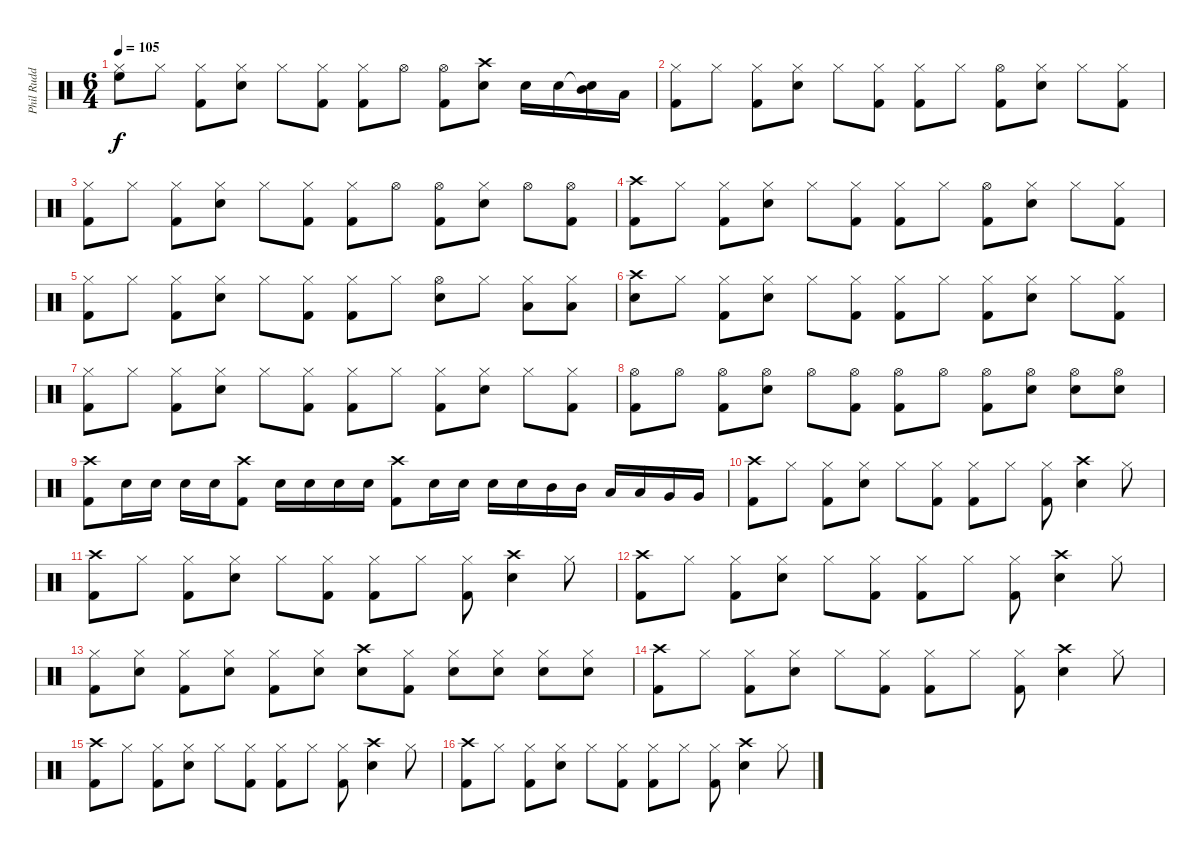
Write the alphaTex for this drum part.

\track ("Phil Rudd" "Phil Rudd") {instrument percussion}
\staff {score}
\articulation defaults
\ts (6 4)
\tempo 105
\clef neutral
\ks c
("Hi-Hat (closed)" "High Floor Tom (hit)").8{dy f} "Hi-Hat (closed)".8 ("Hi-Hat (closed)" "Kick (hit) 2").8 ("Hi-Hat (closed)" "Electric Snare (hit)").8 "Hi-Hat (closed)".8 ("Hi-Hat (closed)" "Kick (hit) 2").8 ("Hi-Hat (closed)" "Kick (hit) 2").8 "Hi-Hat (open)".8 ("Hi-Hat (open)" "Kick (hit) 2").8 ("Crash high (hit)" "Electric Snare (hit)").8 "Electric Snare (hit)".16 "Electric Snare (hit)".16 ("Snare (hit)"{t} "Mid Tom (hit)").16 "Low Tom (hit)".16 |
("Hi-Hat (closed)" "Kick (hit) 2").8 "Hi-Hat (closed)".8 ("Hi-Hat (closed)" "Kick (hit) 2").8 ("Hi-Hat (closed)" "Electric Snare (hit)").8 "Hi-Hat (closed)".8 ("Hi-Hat (closed)" "Kick (hit) 2").8 ("Hi-Hat (closed)" "Kick (hit) 2").8 "Hi-Hat (closed)".8 ("Hi-Hat (open)" "Kick (hit) 2").8 ("Hi-Hat (closed)" "Electric Snare (hit)").8 "Hi-Hat (closed)".8 ("Hi-Hat (closed)" "Kick (hit) 2").8 |
("Hi-Hat (closed)" "Kick (hit) 2").8 "Hi-Hat (closed)".8 ("Hi-Hat (closed)" "Kick (hit) 2").8 ("Hi-Hat (closed)" "Electric Snare (hit)").8 "Hi-Hat (closed)".8 ("Hi-Hat (closed)" "Kick (hit) 2").8 ("Hi-Hat (closed)" "Kick (hit) 2").8 "Hi-Hat (open)".8 ("Hi-Hat (open)" "Kick (hit) 2").8 ("Hi-Hat (closed)" "Electric Snare (hit)").8 "Hi-Hat (open)".8 ("Hi-Hat (open)" "Kick (hit) 2").8 |
("Crash high (hit)" "Kick (hit) 2").8 "Hi-Hat (closed)".8 ("Hi-Hat (closed)" "Kick (hit) 2").8 ("Hi-Hat (closed)" "Electric Snare (hit)").8 "Hi-Hat (closed)".8 ("Hi-Hat (closed)" "Kick (hit) 2").8 ("Hi-Hat (closed)" "Kick (hit) 2").8 "Hi-Hat (closed)".8 ("Hi-Hat (open)" "Kick (hit) 2").8 ("Hi-Hat (closed)" "Electric Snare (hit)").8 "Hi-Hat (closed)".8 ("Hi-Hat (closed)" "Kick (hit) 2").8 |
("Hi-Hat (closed)" "Kick (hit) 2").8 "Hi-Hat (closed)".8 ("Hi-Hat (closed)" "Kick (hit) 2").8 ("Hi-Hat (closed)" "Electric Snare (hit)").8 "Hi-Hat (closed)".8 ("Hi-Hat (closed)" "Kick (hit) 2").8 ("Hi-Hat (closed)" "Kick (hit) 2").8 "Hi-Hat (closed)".8 ("Hi-Hat (open)" "Electric Snare (hit)").8 "Hi-Hat (closed)".8 ("Hi-Hat (closed)" "Low Tom (hit)").8 ("Hi-Hat (closed)" "Low Tom (hit)").8 |
("Crash high (hit)" "Electric Snare (hit)").8 "Hi-Hat (closed)".8 ("Hi-Hat (closed)" "Kick (hit) 2").8 ("Hi-Hat (closed)" "Electric Snare (hit)").8 "Hi-Hat (closed)".8 ("Hi-Hat (closed)" "Kick (hit) 2").8 ("Hi-Hat (closed)" "Kick (hit) 2").8 "Hi-Hat (closed)".8 ("Hi-Hat (closed)" "Kick (hit) 2").8 ("Hi-Hat (closed)" "Electric Snare (hit)").8 "Hi-Hat (closed)".8 ("Hi-Hat (closed)" "Kick (hit) 2").8 |
("Hi-Hat (closed)" "Kick (hit) 2").8 "Hi-Hat (closed)".8 ("Hi-Hat (closed)" "Kick (hit) 2").8 ("Hi-Hat (closed)" "Electric Snare (hit)").8 "Hi-Hat (closed)".8 ("Hi-Hat (closed)" "Kick (hit) 2").8 ("Hi-Hat (closed)" "Kick (hit) 2").8 "Hi-Hat (closed)".8 ("Hi-Hat (closed)" "Kick (hit) 2").8 ("Hi-Hat (closed)" "Electric Snare (hit)").8 "Hi-Hat (closed)".8 ("Hi-Hat (closed)" "Kick (hit) 2").8 |
("Hi-Hat (open)" "Kick (hit) 2").8 "Hi-Hat (open)".8 ("Hi-Hat (open)" "Kick (hit) 2").8 ("Hi-Hat (open)" "Electric Snare (hit)").8 "Hi-Hat (open)".8 ("Hi-Hat (open)" "Kick (hit) 2").8 ("Hi-Hat (open)" "Kick (hit) 2").8 "Hi-Hat (open)".8 ("Hi-Hat (open)" "Kick (hit) 2").8 ("Hi-Hat (open)" "Electric Snare (hit)").8 ("Hi-Hat (open)" "Electric Snare (hit)").8 ("Hi-Hat (open)" "Electric Snare (hit)").8 |
("Crash high (hit)" "Kick (hit) 2").8 "Electric Snare (hit)".16 "Electric Snare (hit)".16 "Electric Snare (hit)".16 "Electric Snare (hit)".16 ("Crash high (hit)" "Kick (hit) 2").8 "Electric Snare (hit)".16 "Electric Snare (hit)".16 "Electric Snare (hit)".16 "Electric Snare (hit)".16 ("Crash high (hit)" "Kick (hit) 2").8 "Electric Snare (hit)".16 "Electric Snare (hit)".16 "Electric Snare (hit)".16 "Electric Snare (hit)".16 "Mid Tom (hit)".16 "Mid Tom (hit)".16 "Low Tom (hit)".16 "Low Tom (hit)".16 "Very Low Tom (hit)".16 "Very Low Tom (hit)".16 |
("Crash high (hit)" "Kick (hit) 2").8 "Hi-Hat (closed)".8 ("Hi-Hat (closed)" "Kick (hit) 2").8 ("Hi-Hat (closed)" "Electric Snare (hit)").8 "Hi-Hat (closed)".8 ("Hi-Hat (closed)" "Kick (hit) 2").8 ("Hi-Hat (closed)" "Kick (hit) 2").8 "Hi-Hat (closed)".8 ("Hi-Hat (closed)" "Kick (hit) 2").8 ("Crash high (hit)" "Electric Snare (hit)").4 "Hi-Hat (closed)".8 |
("Crash high (hit)" "Kick (hit) 2").8 "Hi-Hat (closed)".8 ("Hi-Hat (closed)" "Kick (hit) 2").8 ("Hi-Hat (closed)" "Electric Snare (hit)").8 "Hi-Hat (closed)".8 ("Hi-Hat (closed)" "Kick (hit) 2").8 ("Hi-Hat (closed)" "Kick (hit) 2").8 "Hi-Hat (closed)".8 ("Hi-Hat (closed)" "Kick (hit) 2").8 ("Crash high (hit)" "Electric Snare (hit)").4 "Hi-Hat (closed)".8 |
("Crash high (hit)" "Kick (hit) 2").8 "Hi-Hat (closed)".8 ("Hi-Hat (closed)" "Kick (hit) 2").8 ("Hi-Hat (closed)" "Electric Snare (hit)").8 "Hi-Hat (closed)".8 ("Hi-Hat (closed)" "Kick (hit) 2").8 ("Hi-Hat (closed)" "Kick (hit) 2").8 "Hi-Hat (closed)".8 ("Hi-Hat (closed)" "Kick (hit) 2").8 ("Crash high (hit)" "Electric Snare (hit)").4 "Hi-Hat (closed)".8 |
("Hi-Hat (closed)" "Kick (hit) 2").8 ("Hi-Hat (closed)" "Electric Snare (hit)").8 ("Hi-Hat (closed)" "Kick (hit) 2").8 ("Hi-Hat (closed)" "Electric Snare (hit)").8 ("Hi-Hat (closed)" "Kick (hit) 2").8 ("Hi-Hat (closed)" "Electric Snare (hit)").8 ("Crash high (hit)" "Electric Snare (hit)").8 ("Hi-Hat (closed)" "Kick (hit) 2").8 ("Hi-Hat (closed)" "Electric Snare (hit)").8 ("Hi-Hat (closed)" "Electric Snare (hit)").8 ("Hi-Hat (closed)" "Electric Snare (hit)").8 ("Hi-Hat (closed)" "Electric Snare (hit)").8 |
("Crash high (hit)" "Kick (hit) 2").8 "Hi-Hat (closed)".8 ("Hi-Hat (closed)" "Kick (hit) 2").8 ("Hi-Hat (closed)" "Electric Snare (hit)").8 "Hi-Hat (closed)".8 ("Hi-Hat (closed)" "Kick (hit) 2").8 ("Hi-Hat (closed)" "Kick (hit) 2").8 "Hi-Hat (closed)".8 ("Hi-Hat (closed)" "Kick (hit) 2").8 ("Crash high (hit)" "Electric Snare (hit)").4 "Hi-Hat (closed)".8 |
("Crash high (hit)" "Kick (hit) 2").8 "Hi-Hat (closed)".8 ("Hi-Hat (closed)" "Kick (hit) 2").8 ("Hi-Hat (closed)" "Electric Snare (hit)").8 "Hi-Hat (closed)".8 ("Hi-Hat (closed)" "Kick (hit) 2").8 ("Hi-Hat (closed)" "Kick (hit) 2").8 "Hi-Hat (closed)".8 ("Hi-Hat (closed)" "Kick (hit) 2").8 ("Crash high (hit)" "Electric Snare (hit)").4 "Hi-Hat (closed)".8 |
("Crash high (hit)" "Kick (hit) 2").8 "Hi-Hat (closed)".8 ("Hi-Hat (closed)" "Kick (hit) 2").8 ("Hi-Hat (closed)" "Electric Snare (hit)").8 "Hi-Hat (closed)".8 ("Hi-Hat (closed)" "Kick (hit) 2").8 ("Hi-Hat (closed)" "Kick (hit) 2").8 "Hi-Hat (closed)".8 ("Hi-Hat (closed)" "Kick (hit) 2").8 ("Crash high (hit)" "Electric Snare (hit)").4 "Hi-Hat (closed)".8
